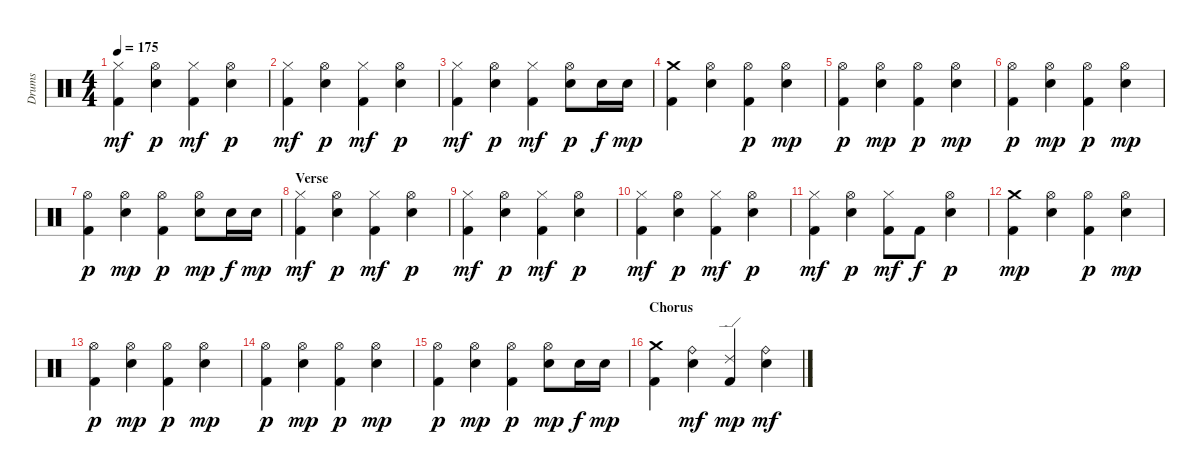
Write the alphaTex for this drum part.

\track ("Drums" "Drums") {instrument percussion}
\staff {score}
\articulation defaults
\ts (4 4)
\tempo 175
\clef neutral
\ks c
("Hi-Hat (closed)" "Kick (hit) 2").4{dy mf} ("Hi-Hat (open)" "Electric Snare (hit)").4{dy p} ("Hi-Hat (closed)" "Kick (hit) 2").4{dy mf} ("Hi-Hat (open)" "Electric Snare (hit)").4{dy p} |
("Hi-Hat (closed)" "Kick (hit) 2").4{dy mf} ("Hi-Hat (open)" "Electric Snare (hit)").4{dy p} ("Hi-Hat (closed)" "Kick (hit) 2").4{dy mf} ("Hi-Hat (open)" "Electric Snare (hit)").4{dy p} |
("Hi-Hat (closed)" "Kick (hit) 2").4{dy mf} ("Hi-Hat (open)" "Electric Snare (hit)").4{dy p} ("Hi-Hat (closed)" "Kick (hit) 2").4{dy mf} ("Hi-Hat (open)" "Electric Snare (hit)").8{dy p} "Electric Snare (hit)".16{dy f} "Electric Snare (hit)".16{dy mp} |
("Crash medium (hit)" "Kick (hit) 2").4 ("Hi-Hat (open)" "Electric Snare (hit)").4 ("Hi-Hat (open)" "Kick (hit) 2").4{dy p} ("Hi-Hat (open)" "Electric Snare (hit)").4{dy mp} |
("Hi-Hat (open)" "Kick (hit) 2").4{dy p} ("Hi-Hat (open)" "Electric Snare (hit)").4{dy mp} ("Hi-Hat (open)" "Kick (hit) 2").4{dy p} ("Hi-Hat (open)" "Electric Snare (hit)").4{dy mp} |
("Hi-Hat (open)" "Kick (hit) 2").4{dy p} ("Hi-Hat (open)" "Electric Snare (hit)").4{dy mp} ("Hi-Hat (open)" "Kick (hit) 2").4{dy p} ("Hi-Hat (open)" "Electric Snare (hit)").4{dy mp} |
("Hi-Hat (open)" "Kick (hit) 2").4{dy p} ("Hi-Hat (open)" "Electric Snare (hit)").4{dy mp} ("Hi-Hat (open)" "Kick (hit) 2").4{dy p} ("Hi-Hat (open)" "Electric Snare (hit)").8{dy mp} "Electric Snare (hit)".16{dy f} "Electric Snare (hit)".16{dy mp} |
\section ("" "Verse")
("Hi-Hat (closed)" "Kick (hit) 2").4{dy mf} ("Hi-Hat (open)" "Electric Snare (hit)").4{dy p} ("Hi-Hat (closed)" "Kick (hit) 2").4{dy mf} ("Hi-Hat (open)" "Electric Snare (hit)").4{dy p} |
("Hi-Hat (closed)" "Kick (hit) 2").4{dy mf} ("Hi-Hat (open)" "Electric Snare (hit)").4{dy p} ("Hi-Hat (closed)" "Kick (hit) 2").4{dy mf} ("Hi-Hat (open)" "Electric Snare (hit)").4{dy p} |
("Hi-Hat (closed)" "Kick (hit) 2").4{dy mf} ("Hi-Hat (open)" "Electric Snare (hit)").4{dy p} ("Hi-Hat (closed)" "Kick (hit) 2").4{dy mf} ("Hi-Hat (open)" "Electric Snare (hit)").4{dy p} |
("Hi-Hat (closed)" "Kick (hit) 2").4{dy mf} ("Hi-Hat (open)" "Electric Snare (hit)").4{dy p} ("Hi-Hat (closed)" "Kick (hit) 2").8{dy mf} "Kick (hit) 2".8{dy f} ("Hi-Hat (open)" "Electric Snare (hit)").4{dy p} |
("Crash medium (hit)" "Kick (hit) 2").4{dy mp} ("Hi-Hat (open)" "Electric Snare (hit)").4 ("Hi-Hat (open)" "Kick (hit) 2").4{dy p} ("Hi-Hat (open)" "Electric Snare (hit)").4{dy mp} |
("Hi-Hat (open)" "Kick (hit) 2").4{dy p} ("Hi-Hat (open)" "Electric Snare (hit)").4{dy mp} ("Hi-Hat (open)" "Kick (hit) 2").4{dy p} ("Hi-Hat (open)" "Electric Snare (hit)").4{dy mp} |
("Hi-Hat (open)" "Kick (hit) 2").4{dy p} ("Hi-Hat (open)" "Electric Snare (hit)").4{dy mp} ("Hi-Hat (open)" "Kick (hit) 2").4{dy p} ("Hi-Hat (open)" "Electric Snare (hit)").4{dy mp} |
("Hi-Hat (open)" "Kick (hit) 2").4{dy p} ("Hi-Hat (open)" "Electric Snare (hit)").4{dy mp} ("Hi-Hat (open)" "Kick (hit) 2").4{dy p} ("Hi-Hat (open)" "Electric Snare (hit)").8{dy mp} "Electric Snare (hit)".16{dy f} "Electric Snare (hit)".16{dy mp} |
\section ("" "Chorus")
("Crash medium (hit)" "Kick (hit) 2").4 ("Ride (bell)" "Electric Snare (hit)").4{dy mf} ("Ride (edge) 2" "Kick (hit) 2").4{dy mp} ("Ride (bell)" "Electric Snare (hit)").4{dy mf}
